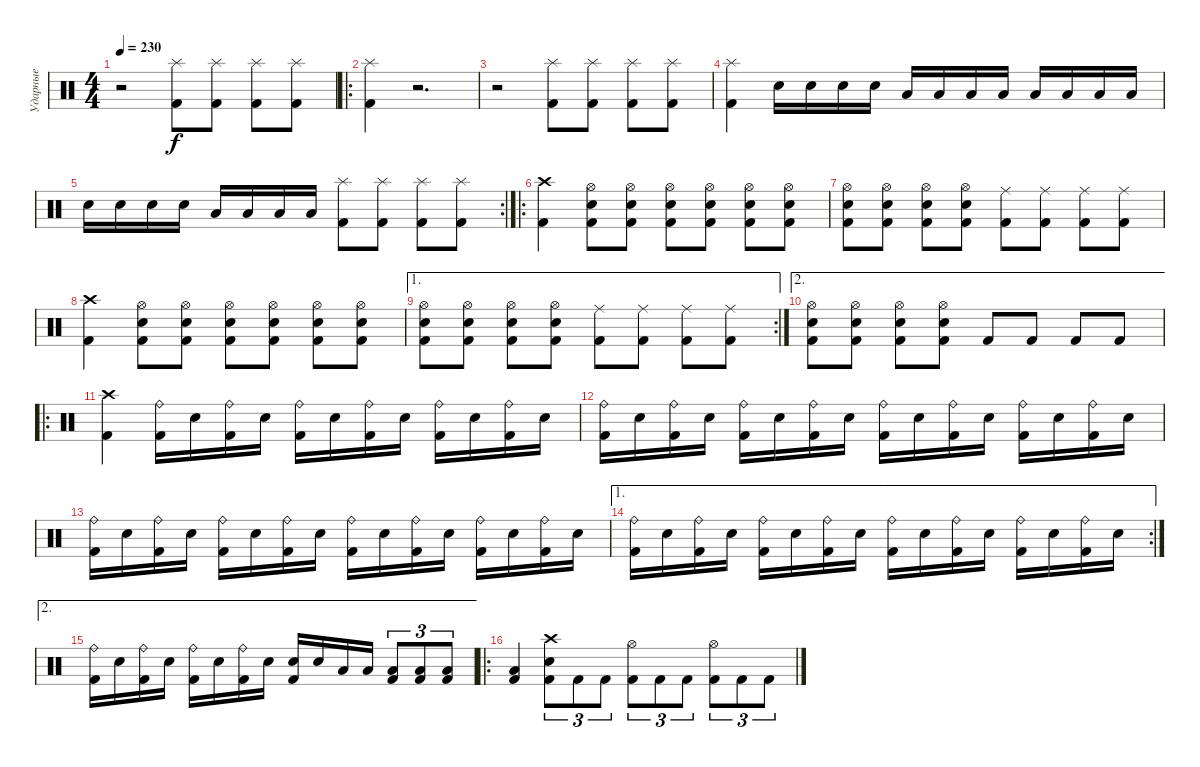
\track ("Ударные" "Ударные") {instrument percussion}
\staff {score}
\articulation defaults
\ts (4 4)
\tempo 230
\clef neutral
\ks c
r.2{dy f} ("Splash (hit)" "Kick (hit) 2").8 ("Splash (hit)" "Kick (hit) 2").8 ("Splash (hit)" "Kick (hit) 2").8 ("Splash (hit)" "Kick (hit) 2").8 |
\ro
("Splash (hit)" "Kick (hit) 2").4 r.2{d} |
r.2 ("Splash (hit)" "Kick (hit) 2").8 ("Splash (hit)" "Kick (hit) 2").8 ("Splash (hit)" "Kick (hit) 2").8 ("Splash (hit)" "Kick (hit) 2").8 |
("Splash (hit)" "Kick (hit) 2").4 "Snare (hit) 2".16 "Snare (hit) 2".16 "Snare (hit) 2".16 "Snare (hit) 2".16 "Low Tom (hit)".16 "Low Tom (hit)".16 "Low Tom (hit)".16 "Low Tom (hit)".16 "Low Floor Tom (hit)".16 "Low Floor Tom (hit)".16 "Low Floor Tom (hit)".16 "Low Floor Tom (hit)".16 |
\rc 2 "Snare (hit) 2".16 "Snare (hit) 2".16 "Snare (hit) 2".16 "Snare (hit) 2".16 "Low Tom (hit)".16 "Low Tom (hit)".16 "Low Tom (hit)".16 "Low Tom (hit)".16
("Splash (hit)" "Kick (hit) 2").8 ("Splash (hit)" "Kick (hit) 2").8 ("Splash (hit)" "Kick (hit) 2").8 ("Splash (hit)" "Kick (hit) 2").8 |
\ro
("Crash high (hit)" "Kick (hit) 2").4 ("Snare (hit) 2" "Hi-Hat (open)" "Kick (hit) 2").8 ("Snare (hit) 2" "Hi-Hat (open)" "Kick (hit) 2").8 ("Snare (hit) 2" "Hi-Hat (open)" "Kick (hit) 2").8 ("Snare (hit) 2" "Hi-Hat (open)" "Kick (hit) 2").8 ("Snare (hit) 2" "Hi-Hat (open)" "Kick (hit) 2").8 ("Snare (hit) 2" "Hi-Hat (open)" "Kick (hit) 2").8 |
("Snare (hit) 2" "Hi-Hat (open)" "Kick (hit) 2").8 ("Snare (hit) 2" "Hi-Hat (open)" "Kick (hit) 2").8 ("Snare (hit) 2" "Hi-Hat (open)" "Kick (hit) 2").8 ("Snare (hit) 2" "Hi-Hat (open)" "Kick (hit) 2").8 ("Ride (middle)" "Kick (hit) 2").8 ("Ride (middle)" "Kick (hit) 2").8 ("Ride (middle)" "Kick (hit) 2").8 ("Ride (middle)" "Kick (hit) 2").8 |
("Crash high (hit)" "Kick (hit) 2").4 ("Snare (hit) 2" "Hi-Hat (open)" "Kick (hit) 2").8 ("Snare (hit) 2" "Hi-Hat (open)" "Kick (hit) 2").8 ("Snare (hit) 2" "Hi-Hat (open)" "Kick (hit) 2").8 ("Snare (hit) 2" "Hi-Hat (open)" "Kick (hit) 2").8 ("Snare (hit) 2" "Hi-Hat (open)" "Kick (hit) 2").8 ("Snare (hit) 2" "Hi-Hat (open)" "Kick (hit) 2").8 |
\ae 1
\rc 2
("Snare (hit) 2" "Hi-Hat (open)" "Kick (hit) 2").8 ("Snare (hit) 2" "Hi-Hat (open)" "Kick (hit) 2").8 ("Snare (hit) 2" "Hi-Hat (open)" "Kick (hit) 2").8 ("Snare (hit) 2" "Hi-Hat (open)" "Kick (hit) 2").8 ("Ride (middle)" "Kick (hit) 2").8 ("Ride (middle)" "Kick (hit) 2").8 ("Ride (middle)" "Kick (hit) 2").8 ("Ride (middle)" "Kick (hit) 2").8 |
\ae 2
("Snare (hit) 2" "Hi-Hat (open)" "Kick (hit) 2").8 ("Snare (hit) 2" "Hi-Hat (open)" "Kick (hit) 2").8 ("Snare (hit) 2" "Hi-Hat (open)" "Kick (hit) 2").8 ("Snare (hit) 2" "Hi-Hat (open)" "Kick (hit) 2").8 "Kick (hit) 2".8 "Kick (hit) 2".8 "Kick (hit) 2".8 "Kick (hit) 2".8 |
\ro
("Crash high (hit)" "Kick (hit) 2").4 ("Ride (bell)" "Kick (hit) 2").16 "Snare (hit) 2".16 ("Ride (bell)" "Kick (hit) 2").16 "Snare (hit) 2".16 ("Ride (bell)" "Kick (hit) 2").16 "Snare (hit) 2".16 ("Ride (bell)" "Kick (hit) 2").16 "Snare (hit) 2".16 ("Ride (bell)" "Kick (hit) 2").16 "Snare (hit) 2".16 ("Ride (bell)" "Kick (hit) 2").16 "Snare (hit) 2".16 |
("Ride (bell)" "Kick (hit) 2").16 "Snare (hit) 2".16 ("Ride (bell)" "Kick (hit) 2").16 "Snare (hit) 2".16 ("Ride (bell)" "Kick (hit) 2").16 "Snare (hit) 2".16 ("Ride (bell)" "Kick (hit) 2").16 "Snare (hit) 2".16 ("Ride (bell)" "Kick (hit) 2").16 "Snare (hit) 2".16 ("Ride (bell)" "Kick (hit) 2").16 "Snare (hit) 2".16 ("Ride (bell)" "Kick (hit) 2").16 "Snare (hit) 2".16 ("Ride (bell)" "Kick (hit) 2").16 "Snare (hit) 2".16 |
("Ride (bell)" "Kick (hit) 2").16 "Snare (hit) 2".16 ("Ride (bell)" "Kick (hit) 2").16 "Snare (hit) 2".16 ("Ride (bell)" "Kick (hit) 2").16 "Snare (hit) 2".16 ("Ride (bell)" "Kick (hit) 2").16 "Snare (hit) 2".16 ("Ride (bell)" "Kick (hit) 2").16 "Snare (hit) 2".16 ("Ride (bell)" "Kick (hit) 2").16 "Snare (hit) 2".16 ("Ride (bell)" "Kick (hit) 2").16 "Snare (hit) 2".16 ("Ride (bell)" "Kick (hit) 2").16 "Snare (hit) 2".16 |
\ae 1
\rc 2
("Ride (bell)" "Kick (hit) 2").16 "Snare (hit) 2".16 ("Ride (bell)" "Kick (hit) 2").16 "Snare (hit) 2".16 ("Ride (bell)" "Kick (hit) 2").16 "Snare (hit) 2".16 ("Ride (bell)" "Kick (hit) 2").16 "Snare (hit) 2".16 ("Ride (bell)" "Kick (hit) 2").16 "Snare (hit) 2".16 ("Ride (bell)" "Kick (hit) 2").16 "Snare (hit) 2".16 ("Ride (bell)" "Kick (hit) 2").16 "Snare (hit) 2".16 ("Ride (bell)" "Kick (hit) 2").16 "Snare (hit) 2".16 |
\ae 2
("Ride (bell)" "Kick (hit) 2").16 "Snare (hit) 2".16 ("Ride (bell)" "Kick (hit) 2").16 "Snare (hit) 2".16 ("Ride (bell)" "Kick (hit) 2").16 "Snare (hit) 2".16 ("Ride (bell)" "Kick (hit) 2").16 "Snare (hit) 2".16 ("Snare (hit) 2" "Kick (hit) 2").16 "Snare (hit) 2".16 "Low Tom (hit)".16 "Low Tom (hit)".16 ("Low Floor Tom (hit)" "Kick (hit) 2").8{tu (3 2)} ("Low Floor Tom (hit)" "Kick (hit) 2").8{tu (3 2)} ("Low Floor Tom (hit)" "Kick (hit) 2").8{tu (3 2)} |
\ro
("Low Floor Tom (hit)" "Kick (hit) 2").4 ("Snare (hit) 2" "Crash high (hit)" "Kick (hit) 2").8{tu (3 2)} "Kick (hit) 2".8{tu (3 2)} "Kick (hit) 2".8{tu (3 2)} ("Hi-Hat (open)" "Kick (hit) 2").8{tu (3 2)} "Kick (hit) 2".8{tu (3 2)} "Kick (hit) 2".8{tu (3 2)} ("Hi-Hat (open)" "Kick (hit) 2").8{tu (3 2)} "Kick (hit) 2".8{tu (3 2)} "Kick (hit) 2".8{tu (3 2)}
